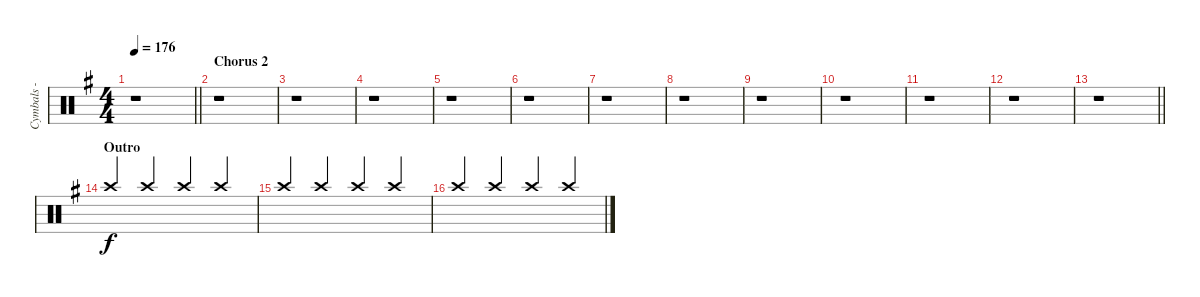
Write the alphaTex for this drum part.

\track ("Cymbals - crash" "Cymbals - ") {instrument percussion}
\staff {score}
\articulation defaults
\ts (4 4)
\tempo 176
\clef neutral
\barLineRight lightlight
\ks eminor
r.1{dy ff} |
\section ("" "Chorus 2")
r.1 |
r.1 |
r.1 |
r.1 |
r.1 |
r.1 |
r.1 |
r.1 |
r.1 |
r.1 |
r.1 |
\barLineRight lightlight
r.1 |
\section ("" "Outro")
"Crash high (hit)".4{dy f balance 5 beam Up} "Crash high (hit)".4{beam Up} "Crash high (hit)".4{beam Up} "Crash high (hit)".4{beam Up} |
"Crash high (hit)".4{beam Up} "Crash high (hit)".4{beam Up} "Crash high (hit)".4{beam Up} "Crash high (hit)".4{beam Up} |
"Crash high (hit)".4{beam Up} "Crash high (hit)".4{beam Up} "Crash high (hit)".4{beam Up} "Crash high (hit)".4{beam Up}
